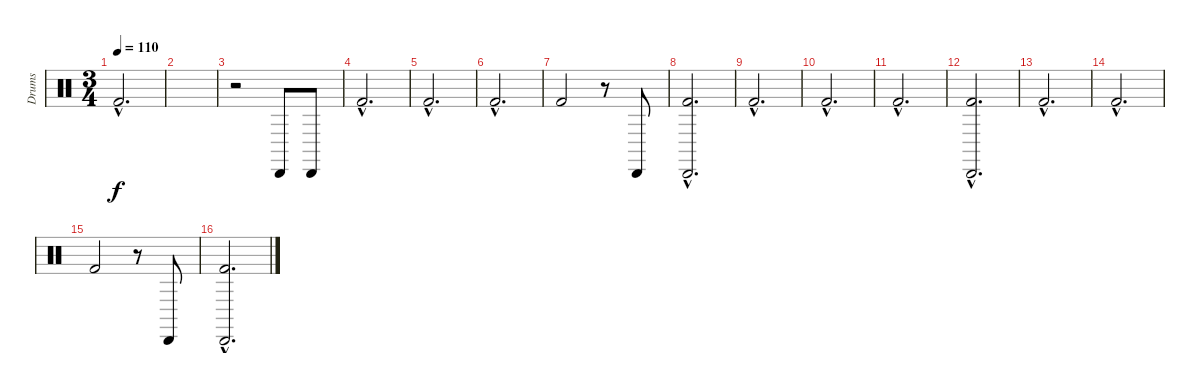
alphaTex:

\track ("Drums" "Drums") {instrument percussion}
\staff {score}
\articulation defaults
\ts (3 4)
\tempo 110
\clef neutral
\ks c "Kick (hit) 2"{hac}.2{d dy f}
|
|
r.2 "Cabasa (hit)".8 "Cabasa (hit)".8 |
"Kick (hit) 2"{hac}.2{d} |
"Kick (hit) 2"{hac}.2{d} |
"Kick (hit) 2"{hac}.2{d} |
"Kick (hit) 2".2 r.8 "Cabasa (hit)".8 |
("Kick (hit) 2"{hac} "Cabasa (hit)"{hac}).2{d} |
"Kick (hit) 2"{hac}.2{d} |
"Kick (hit) 2"{hac}.2{d} |
"Kick (hit) 2"{hac}.2{d} |
("Kick (hit) 2"{hac} "Cabasa (hit)"{hac}).2{d} |
"Kick (hit) 2"{hac}.2{d} |
"Kick (hit) 2"{hac}.2{d} |
"Kick (hit) 2".2 r.8 "Cabasa (hit)".8 |
("Kick (hit) 2"{hac} "Cabasa (hit)"{hac}).2{d}
